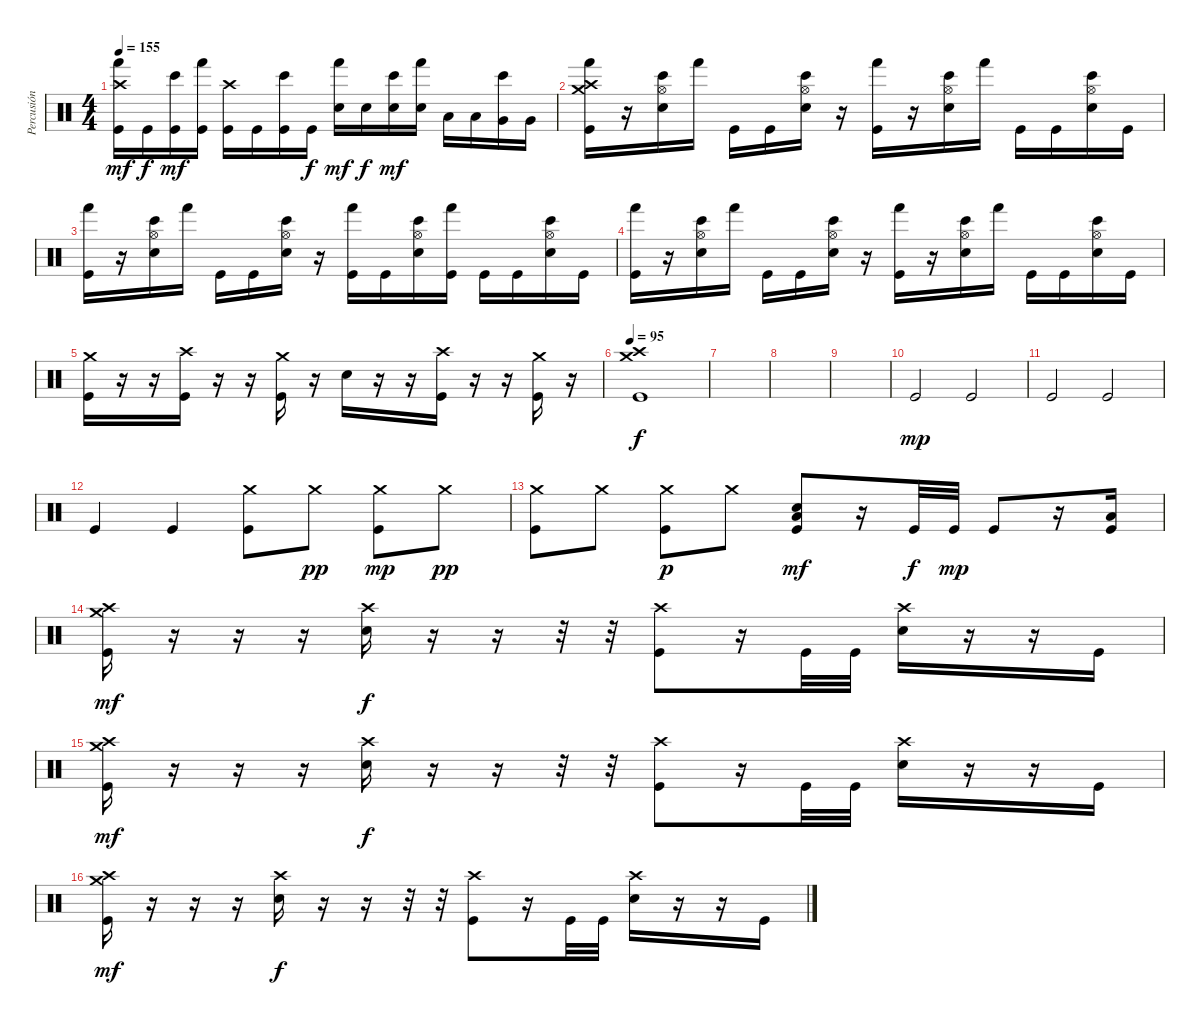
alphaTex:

\track ("Percusión" "Percusión") {instrument percussion}
\staff {score}
\articulation defaults
\ts (4 4)
\tempo 155
\clef neutral
\ks c
("Hand (hit)" "Crash high (hit)" "Kick (hit)").16{dy mf} "Kick (hit)".16{dy f} ("Bongo High (hit)" "Kick (hit)").16{dy mf} ("Hand (hit)" "Kick (hit)").16 ("Crash high (hit)" "Kick (hit)").16 "Kick (hit)".16 ("Bongo High (hit)" "Kick (hit)").16 "Kick (hit)".16{dy f} ("Hand (hit)" "Electric Snare (hit)").16{dy mf} "Electric Snare (hit)".16{dy f} ("Bongo High (hit)" "Electric Snare (hit)").16{dy mf} ("Hand (hit)" "Electric Snare (hit)").16 "Low Tom (hit)".16 "Low Tom (hit)".16 ("Bongo High (hit)" "Very Low Tom (hit)").16 "Very Low Tom (hit)".16 |
("Hand (hit)" "Crash medium (hit)" "Crash high (hit)" "Kick (hit)").16 r.16 ("Bongo High (hit)" "Hi-Hat (open)" "Electric Snare (hit)").16 "Hand (hit)".16 "Kick (hit)".16 "Kick (hit)".16 ("Bongo High (hit)" "Hi-Hat (open)" "Electric Snare (hit)").16 r.16 ("Hand (hit)" "Kick (hit)").16 r.16 ("Bongo High (hit)" "Hi-Hat (open)" "Electric Snare (hit)").16 "Hand (hit)".16 "Kick (hit)".16 "Kick (hit)".16 ("Bongo High (hit)" "Hi-Hat (open)" "Electric Snare (hit)").16 "Kick (hit)".16 |
("Hand (hit)" "Kick (hit)").16 r.16 ("Bongo High (hit)" "Hi-Hat (open)" "Electric Snare (hit)").16 "Hand (hit)".16 "Kick (hit)".16 "Kick (hit)".16 ("Bongo High (hit)" "Hi-Hat (open)" "Electric Snare (hit)").16 r.16 ("Hand (hit)" "Kick (hit)").16 "Kick (hit)".16 ("Bongo High (hit)" "Hi-Hat (open)" "Electric Snare (hit)").16 ("Hand (hit)" "Kick (hit)").16 "Kick (hit)".16 "Kick (hit)".16 ("Bongo High (hit)" "Hi-Hat (open)" "Electric Snare (hit)").16 "Kick (hit)".16 |
("Hand (hit)" "Kick (hit)").16 r.16 ("Bongo High (hit)" "Hi-Hat (open)" "Electric Snare (hit)").16 "Hand (hit)".16 "Kick (hit)".16 "Kick (hit)".16 ("Bongo High (hit)" "Hi-Hat (open)" "Electric Snare (hit)").16 r.16 ("Hand (hit)" "Kick (hit)").16 r.16 ("Bongo High (hit)" "Hi-Hat (open)" "Electric Snare (hit)").16 "Hand (hit)".16 "Kick (hit)".16 "Kick (hit)".16 ("Bongo High (hit)" "Hi-Hat (open)" "Electric Snare (hit)").16 "Kick (hit)".16 |
("Crash medium (hit)" "Kick (hit)").16 r.16 r.16 ("Crash high (hit)" "Kick (hit)").16 r.16 r.16 ("Crash medium (hit)" "Kick (hit)").16 r.16 "Electric Snare (hit)".16 r.16 r.16 ("Crash high (hit)" "Kick (hit)").16 r.16 r.16 ("Crash medium (hit)" "Kick (hit)").16 r.16 |
\tempo 95
("Crash medium (hit)" "Crash high (hit)" "Kick (hit)").1{dy f} |
|
|
|
"Kick (hit)".2{dy mp} "Kick (hit)".2 |
"Kick (hit)".2 "Kick (hit)".2 |
"Kick (hit)".4 "Kick (hit)".4 ("Crash medium (hit)" "Kick (hit)").8 "Crash medium (hit)".8{dy pp} ("Crash medium (hit)" "Kick (hit)").8{dy mp} "Crash medium (hit)".8{dy pp} |
("Crash medium (hit)" "Kick (hit)").8 "Crash medium (hit)".8 ("Crash medium (hit)" "Kick (hit)").8{dy p} "Crash medium (hit)".8 ("Kick (hit)" "Low Tom (hit)" "Electric Snare (hit)").8{dy mf} r.16 "Kick (hit)".32{dy f} "Kick (hit)".32{dy mp} "Kick (hit)".8 r.16 ("Low Tom (hit)" "Kick (hit)").16 |
("Crash medium (hit)" "Crash high (hit)" "Kick (hit)").16{dy mf} r.16 r.16 r.16 ("Crash high (hit)" "Electric Snare (hit)").16{dy f} r.16 r.16 r.32 r.32 ("Crash high (hit)" "Kick (hit)").8 r.16 "Kick (hit)".32 "Kick (hit)".32 ("Crash high (hit)" "Electric Snare (hit)").16 r.16 r.16 "Kick (hit)".16 |
("Crash medium (hit)" "Crash high (hit)" "Kick (hit)").16{dy mf} r.16 r.16 r.16 ("Crash high (hit)" "Electric Snare (hit)").16{dy f} r.16 r.16 r.32 r.32 ("Crash high (hit)" "Kick (hit)").8 r.16 "Kick (hit)".32 "Kick (hit)".32 ("Crash high (hit)" "Electric Snare (hit)").16 r.16 r.16 "Kick (hit)".16 |
("Crash medium (hit)" "Crash high (hit)" "Kick (hit)").16{dy mf} r.16 r.16 r.16 ("Crash high (hit)" "Electric Snare (hit)").16{dy f} r.16 r.16 r.32 r.32 ("Crash high (hit)" "Kick (hit)").8 r.16 "Kick (hit)".32 "Kick (hit)".32 ("Crash high (hit)" "Electric Snare (hit)").16 r.16 r.16 "Kick (hit)".16
